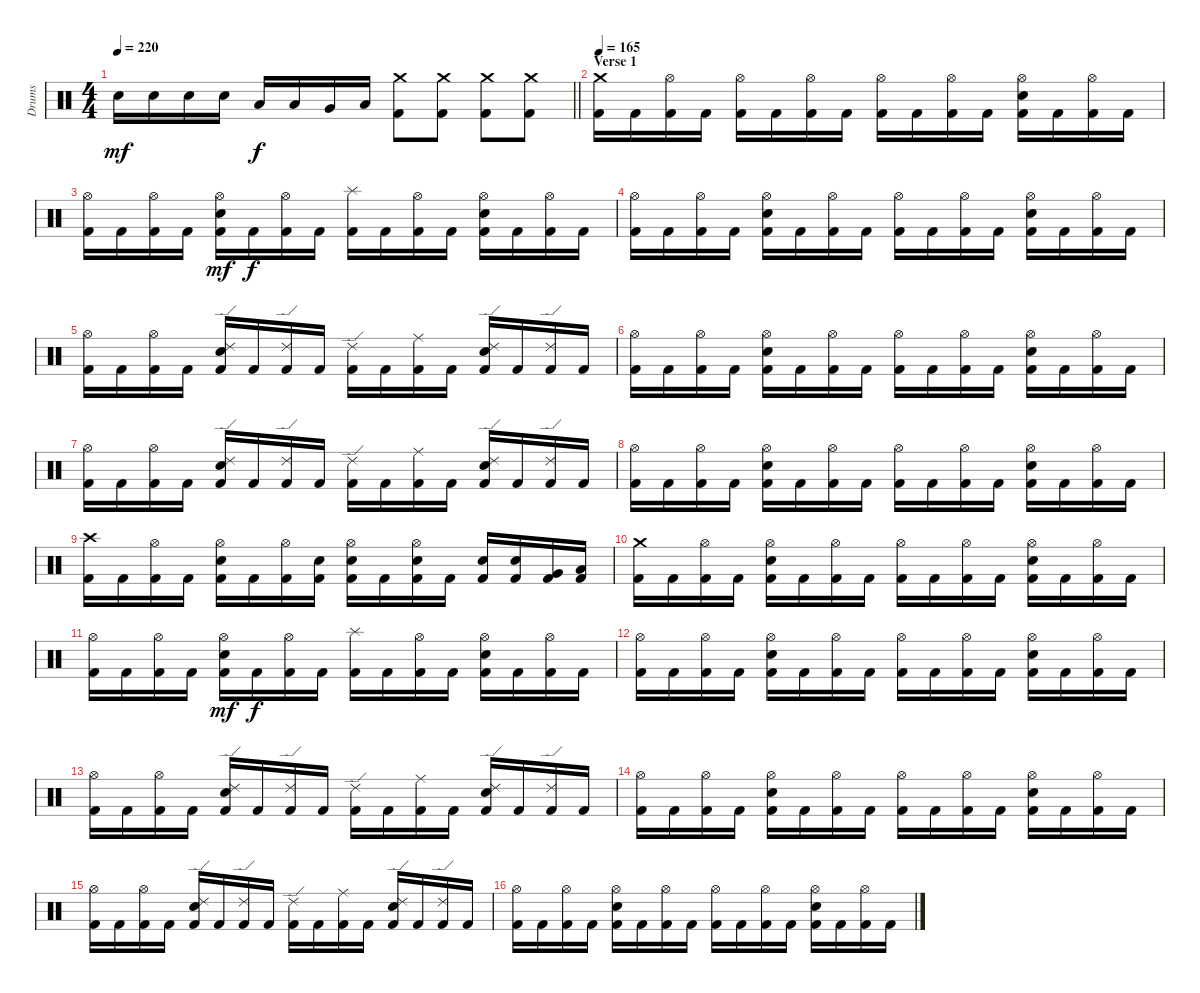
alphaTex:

\track ("Drums" "Drums") {instrument percussion}
\staff {score}
\articulation defaults
\ts (4 4)
\tempo 220
\clef neutral
\barLineRight lightlight
\ks c "Snare (hit) 2".16{dy mf} "Snare (hit) 2".16 "Snare (hit) 2".16 "Snare (hit) 2".16 "Low Tom (hit)".16{dy f} "Low Tom (hit)".16 "Very Low Tom (hit)".16 "Low Floor Tom (hit)".16
("Crash medium (hit)" "Kick (hit) 2").8 ("Crash medium (hit)" "Kick (hit) 2").8 ("Crash medium (hit)" "Kick (hit) 2").8 ("Crash medium (hit)" "Kick (hit) 2").8 |
\section ("" "Verse 1")
\tempo 165
("Crash medium (hit)" "Kick (hit) 2").16 "Kick (hit) 2".16 ("Hi-Hat (open)" "Kick (hit) 2").16 "Kick (hit) 2".16 ("Hi-Hat (open)" "Kick (hit) 2").16 "Kick (hit) 2".16 ("Hi-Hat (open)" "Kick (hit) 2").16 "Kick (hit) 2".16 ("Hi-Hat (open)" "Kick (hit) 2").16 "Kick (hit) 2".16 ("Hi-Hat (open)" "Kick (hit) 2").16 "Kick (hit) 2".16 ("Hi-Hat (open)" "Snare (hit) 2" "Kick (hit) 2").16 "Kick (hit) 2".16 ("Hi-Hat (open)" "Kick (hit) 2").16 "Kick (hit) 2".16 |
("Hi-Hat (open)" "Kick (hit) 2").16 "Kick (hit) 2".16 ("Hi-Hat (open)" "Kick (hit) 2").16 "Kick (hit) 2".16 ("Hi-Hat (open)" "Snare (hit) 2" "Kick (hit) 2").16{dy mf} "Kick (hit) 2".16{dy f} ("Hi-Hat (open)" "Kick (hit) 2").16 "Kick (hit) 2".16 ("Splash (hit)" "Kick (hit) 2").16 "Kick (hit) 2".16 ("Hi-Hat (open)" "Kick (hit) 2").16 "Kick (hit) 2".16 ("Hi-Hat (open)" "Snare (hit) 2" "Kick (hit) 2").16 "Kick (hit) 2".16 ("Hi-Hat (open)" "Kick (hit) 2").16 "Kick (hit) 2".16 |
("Hi-Hat (open)" "Kick (hit) 2").16 "Kick (hit) 2".16 ("Hi-Hat (open)" "Kick (hit) 2").16 "Kick (hit) 2".16 ("Hi-Hat (open)" "Snare (hit) 2" "Kick (hit) 2").16 "Kick (hit) 2".16 ("Hi-Hat (open)" "Kick (hit) 2").16 "Kick (hit) 2".16 ("Hi-Hat (open)" "Kick (hit) 2").16 "Kick (hit) 2".16 ("Hi-Hat (open)" "Kick (hit) 2").16 "Kick (hit) 2".16 ("Hi-Hat (open)" "Snare (hit) 2" "Kick (hit) 2").16 "Kick (hit) 2".16 ("Hi-Hat (open)" "Kick (hit) 2").16 "Kick (hit) 2".16 |
("Hi-Hat (open)" "Kick (hit) 2").16 "Kick (hit) 2".16 ("Hi-Hat (open)" "Kick (hit) 2").16 "Kick (hit) 2".16 ("Ride (edge) 2" "Snare (hit) 2" "Kick (hit) 2").16 "Kick (hit) 2".16 ("Ride (edge) 2" "Kick (hit) 2").16 "Kick (hit) 2".16 ("Ride (edge) 2" "Kick (hit) 2").16 "Kick (hit) 2".16 ("Ride (middle)" "Kick (hit) 2").16 "Kick (hit) 2".16 ("Ride (edge) 2" "Snare (hit) 2" "Kick (hit) 2").16 "Kick (hit) 2".16 ("Ride (edge) 2" "Kick (hit) 2").16 "Kick (hit) 2".16 |
("Hi-Hat (open)" "Kick (hit) 2").16 "Kick (hit) 2".16 ("Hi-Hat (open)" "Kick (hit) 2").16 "Kick (hit) 2".16 ("Hi-Hat (open)" "Snare (hit) 2" "Kick (hit) 2").16 "Kick (hit) 2".16 ("Hi-Hat (open)" "Kick (hit) 2").16 "Kick (hit) 2".16 ("Hi-Hat (open)" "Kick (hit) 2").16 "Kick (hit) 2".16 ("Hi-Hat (open)" "Kick (hit) 2").16 "Kick (hit) 2".16 ("Hi-Hat (open)" "Snare (hit) 2" "Kick (hit) 2").16 "Kick (hit) 2".16 ("Hi-Hat (open)" "Kick (hit) 2").16 "Kick (hit) 2".16 |
("Hi-Hat (open)" "Kick (hit) 2").16 "Kick (hit) 2".16 ("Hi-Hat (open)" "Kick (hit) 2").16 "Kick (hit) 2".16 ("Ride (edge) 2" "Snare (hit) 2" "Kick (hit) 2").16 "Kick (hit) 2".16 ("Ride (edge) 2" "Kick (hit) 2").16 "Kick (hit) 2".16 ("Ride (edge) 2" "Kick (hit) 2").16 "Kick (hit) 2".16 ("Ride (middle)" "Kick (hit) 2").16 "Kick (hit) 2".16 ("Ride (edge) 2" "Snare (hit) 2" "Kick (hit) 2").16 "Kick (hit) 2".16 ("Ride (edge) 2" "Kick (hit) 2").16 "Kick (hit) 2".16 |
("Hi-Hat (open)" "Kick (hit) 2").16 "Kick (hit) 2".16 ("Hi-Hat (open)" "Kick (hit) 2").16 "Kick (hit) 2".16 ("Hi-Hat (open)" "Snare (hit) 2" "Kick (hit) 2").16 "Kick (hit) 2".16 ("Hi-Hat (open)" "Kick (hit) 2").16 "Kick (hit) 2".16 ("Hi-Hat (open)" "Kick (hit) 2").16 "Kick (hit) 2".16 ("Hi-Hat (open)" "Kick (hit) 2").16 "Kick (hit) 2".16 ("Hi-Hat (open)" "Snare (hit) 2" "Kick (hit) 2").16 "Kick (hit) 2".16 ("Hi-Hat (open)" "Kick (hit) 2").16 "Kick (hit) 2".16 |
("Crash high (hit)" "Kick (hit) 2").16 "Kick (hit) 2".16 ("Hi-Hat (open)" "Kick (hit) 2").16 "Kick (hit) 2".16 ("Hi-Hat (open)" "Snare (hit) 2" "Kick (hit) 2").16 "Kick (hit) 2".16 ("Hi-Hat (open)" "Kick (hit) 2").16 ("Snare (hit) 2" "Kick (hit) 2").16 ("Hi-Hat (open)" "Snare (hit) 2" "Kick (hit) 2").16 "Kick (hit) 2".16 ("Hi-Hat (open)" "Snare (hit) 2" "Kick (hit) 2").16 "Kick (hit) 2".16 ("Snare (hit) 2" "Kick (hit) 2").16 ("Snare (hit) 2" "Kick (hit) 2").16 ("Very Low Tom (hit)" "Kick (hit) 2").16 ("Low Floor Tom (hit)" "Kick (hit) 2").16 |
("Crash medium (hit)" "Kick (hit) 2").16 "Kick (hit) 2".16 ("Hi-Hat (open)" "Kick (hit) 2").16 "Kick (hit) 2".16 ("Hi-Hat (open)" "Snare (hit) 2" "Kick (hit) 2").16 "Kick (hit) 2".16 ("Hi-Hat (open)" "Kick (hit) 2").16 "Kick (hit) 2".16 ("Hi-Hat (open)" "Kick (hit) 2").16 "Kick (hit) 2".16 ("Hi-Hat (open)" "Kick (hit) 2").16 "Kick (hit) 2".16 ("Hi-Hat (open)" "Snare (hit) 2" "Kick (hit) 2").16 "Kick (hit) 2".16 ("Hi-Hat (open)" "Kick (hit) 2").16 "Kick (hit) 2".16 |
("Hi-Hat (open)" "Kick (hit) 2").16 "Kick (hit) 2".16 ("Hi-Hat (open)" "Kick (hit) 2").16 "Kick (hit) 2".16 ("Hi-Hat (open)" "Snare (hit) 2" "Kick (hit) 2").16{dy mf} "Kick (hit) 2".16{dy f} ("Hi-Hat (open)" "Kick (hit) 2").16 "Kick (hit) 2".16 ("Splash (hit)" "Kick (hit) 2").16 "Kick (hit) 2".16 ("Hi-Hat (open)" "Kick (hit) 2").16 "Kick (hit) 2".16 ("Hi-Hat (open)" "Snare (hit) 2" "Kick (hit) 2").16 "Kick (hit) 2".16 ("Hi-Hat (open)" "Kick (hit) 2").16 "Kick (hit) 2".16 |
("Hi-Hat (open)" "Kick (hit) 2").16 "Kick (hit) 2".16 ("Hi-Hat (open)" "Kick (hit) 2").16 "Kick (hit) 2".16 ("Hi-Hat (open)" "Snare (hit) 2" "Kick (hit) 2").16 "Kick (hit) 2".16 ("Hi-Hat (open)" "Kick (hit) 2").16 "Kick (hit) 2".16 ("Hi-Hat (open)" "Kick (hit) 2").16 "Kick (hit) 2".16 ("Hi-Hat (open)" "Kick (hit) 2").16 "Kick (hit) 2".16 ("Hi-Hat (open)" "Snare (hit) 2" "Kick (hit) 2").16 "Kick (hit) 2".16 ("Hi-Hat (open)" "Kick (hit) 2").16 "Kick (hit) 2".16 |
("Hi-Hat (open)" "Kick (hit) 2").16 "Kick (hit) 2".16 ("Hi-Hat (open)" "Kick (hit) 2").16 "Kick (hit) 2".16 ("Ride (edge) 2" "Snare (hit) 2" "Kick (hit) 2").16 "Kick (hit) 2".16 ("Ride (edge) 2" "Kick (hit) 2").16 "Kick (hit) 2".16 ("Ride (edge) 2" "Kick (hit) 2").16 "Kick (hit) 2".16 ("Ride (middle)" "Kick (hit) 2").16 "Kick (hit) 2".16 ("Ride (edge) 2" "Snare (hit) 2" "Kick (hit) 2").16 "Kick (hit) 2".16 ("Ride (edge) 2" "Kick (hit) 2").16 "Kick (hit) 2".16 |
("Hi-Hat (open)" "Kick (hit) 2").16 "Kick (hit) 2".16 ("Hi-Hat (open)" "Kick (hit) 2").16 "Kick (hit) 2".16 ("Hi-Hat (open)" "Snare (hit) 2" "Kick (hit) 2").16 "Kick (hit) 2".16 ("Hi-Hat (open)" "Kick (hit) 2").16 "Kick (hit) 2".16 ("Hi-Hat (open)" "Kick (hit) 2").16 "Kick (hit) 2".16 ("Hi-Hat (open)" "Kick (hit) 2").16 "Kick (hit) 2".16 ("Hi-Hat (open)" "Snare (hit) 2" "Kick (hit) 2").16 "Kick (hit) 2".16 ("Hi-Hat (open)" "Kick (hit) 2").16 "Kick (hit) 2".16 |
("Hi-Hat (open)" "Kick (hit) 2").16 "Kick (hit) 2".16 ("Hi-Hat (open)" "Kick (hit) 2").16 "Kick (hit) 2".16 ("Ride (edge) 2" "Snare (hit) 2" "Kick (hit) 2").16 "Kick (hit) 2".16 ("Ride (edge) 2" "Kick (hit) 2").16 "Kick (hit) 2".16 ("Ride (edge) 2" "Kick (hit) 2").16 "Kick (hit) 2".16 ("Ride (middle)" "Kick (hit) 2").16 "Kick (hit) 2".16 ("Ride (edge) 2" "Snare (hit) 2" "Kick (hit) 2").16 "Kick (hit) 2".16 ("Ride (edge) 2" "Kick (hit) 2").16 "Kick (hit) 2".16 |
("Hi-Hat (open)" "Kick (hit) 2").16 "Kick (hit) 2".16 ("Hi-Hat (open)" "Kick (hit) 2").16 "Kick (hit) 2".16 ("Hi-Hat (open)" "Snare (hit) 2" "Kick (hit) 2").16 "Kick (hit) 2".16 ("Hi-Hat (open)" "Kick (hit) 2").16 "Kick (hit) 2".16 ("Hi-Hat (open)" "Kick (hit) 2").16 "Kick (hit) 2".16 ("Hi-Hat (open)" "Kick (hit) 2").16 "Kick (hit) 2".16 ("Hi-Hat (open)" "Snare (hit) 2" "Kick (hit) 2").16 "Kick (hit) 2".16 ("Hi-Hat (open)" "Kick (hit) 2").16 "Kick (hit) 2".16
